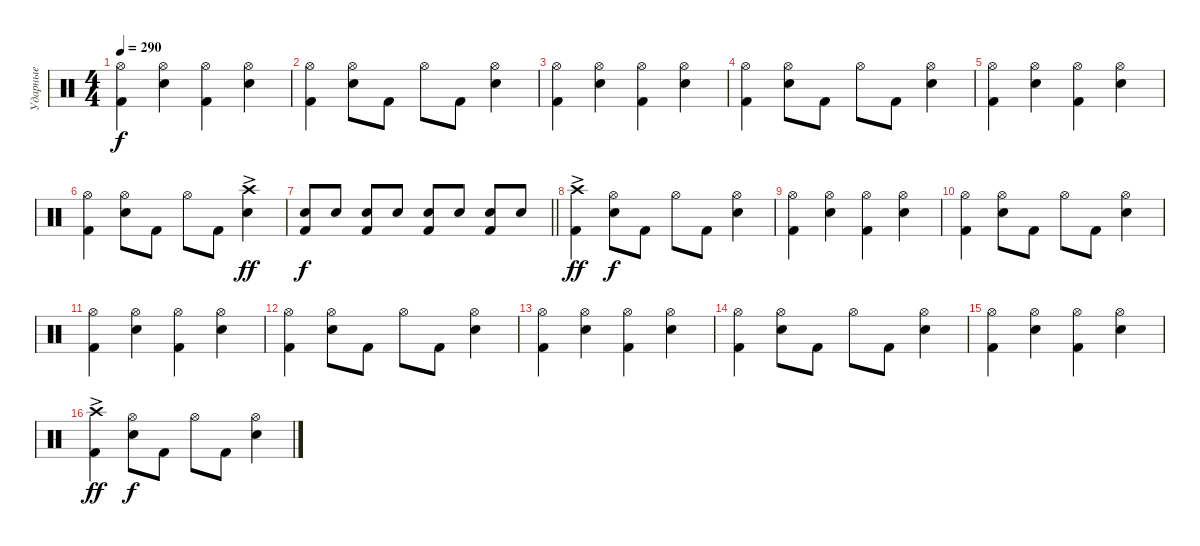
\track ("Ударные" "Ударные") {instrument percussion}
\staff {score}
\articulation defaults
\ts (4 4)
\tempo 290
\clef neutral
\ks c
("Kick (hit) 2" "Hi-Hat (open)").4{dy f} ("Snare (hit) 2" "Hi-Hat (open)").4 ("Kick (hit) 2" "Hi-Hat (open)").4 ("Snare (hit) 2" "Hi-Hat (open)").4 |
("Kick (hit) 2" "Hi-Hat (open)").4 ("Snare (hit) 2" "Hi-Hat (open)").8 "Kick (hit) 2".8 "Hi-Hat (open)".8 "Kick (hit) 2".8 ("Snare (hit) 2" "Hi-Hat (open)").4 |
("Kick (hit) 2" "Hi-Hat (open)").4 ("Snare (hit) 2" "Hi-Hat (open)").4 ("Kick (hit) 2" "Hi-Hat (open)").4 ("Snare (hit) 2" "Hi-Hat (open)").4 |
("Kick (hit) 2" "Hi-Hat (open)").4 ("Snare (hit) 2" "Hi-Hat (open)").8 "Kick (hit) 2".8 "Hi-Hat (open)".8 "Kick (hit) 2".8 ("Snare (hit) 2" "Hi-Hat (open)").4 |
("Kick (hit) 2" "Hi-Hat (open)").4 ("Snare (hit) 2" "Hi-Hat (open)").4 ("Kick (hit) 2" "Hi-Hat (open)").4 ("Snare (hit) 2" "Hi-Hat (open)").4 |
("Kick (hit) 2" "Hi-Hat (open)").4 ("Snare (hit) 2" "Hi-Hat (open)").8 "Kick (hit) 2".8 "Hi-Hat (open)".8 "Kick (hit) 2".8 ("Snare (hit) 2" "Crash high (hit)"{ac}).4{dy ff} |
\barLineRight lightlight
("Kick (hit) 2" "Snare (hit) 2").8{dy f} "Snare (hit) 2".8 ("Kick (hit) 2" "Snare (hit) 2").8 "Snare (hit) 2".8 ("Kick (hit) 2" "Snare (hit) 2").8 "Snare (hit) 2".8 ("Kick (hit) 2" "Snare (hit) 2").8 "Snare (hit) 2".8 |
("Kick (hit) 2" "Crash high (hit)"{ac}).4{dy ff} ("Snare (hit) 2" "Hi-Hat (open)").8{dy f} "Kick (hit) 2".8 "Hi-Hat (open)".8 "Kick (hit) 2".8 ("Snare (hit) 2" "Hi-Hat (open)").4 |
("Kick (hit) 2" "Hi-Hat (open)").4 ("Snare (hit) 2" "Hi-Hat (open)").4 ("Kick (hit) 2" "Hi-Hat (open)").4 ("Snare (hit) 2" "Hi-Hat (open)").4 |
("Kick (hit) 2" "Hi-Hat (open)").4 ("Snare (hit) 2" "Hi-Hat (open)").8 "Kick (hit) 2".8 "Hi-Hat (open)".8 "Kick (hit) 2".8 ("Snare (hit) 2" "Hi-Hat (open)").4 |
("Kick (hit) 2" "Hi-Hat (open)").4 ("Snare (hit) 2" "Hi-Hat (open)").4 ("Kick (hit) 2" "Hi-Hat (open)").4 ("Snare (hit) 2" "Hi-Hat (open)").4 |
("Kick (hit) 2" "Hi-Hat (open)").4 ("Snare (hit) 2" "Hi-Hat (open)").8 "Kick (hit) 2".8 "Hi-Hat (open)".8 "Kick (hit) 2".8 ("Snare (hit) 2" "Hi-Hat (open)").4 |
("Kick (hit) 2" "Hi-Hat (open)").4 ("Snare (hit) 2" "Hi-Hat (open)").4 ("Kick (hit) 2" "Hi-Hat (open)").4 ("Snare (hit) 2" "Hi-Hat (open)").4 |
("Kick (hit) 2" "Hi-Hat (open)").4 ("Snare (hit) 2" "Hi-Hat (open)").8 "Kick (hit) 2".8 "Hi-Hat (open)".8 "Kick (hit) 2".8 ("Snare (hit) 2" "Hi-Hat (open)").4 |
("Kick (hit) 2" "Hi-Hat (open)").4 ("Snare (hit) 2" "Hi-Hat (open)").4 ("Kick (hit) 2" "Hi-Hat (open)").4 ("Snare (hit) 2" "Hi-Hat (open)").4 |
("Kick (hit) 2" "Crash high (hit)"{ac}).4{dy ff} ("Snare (hit) 2" "Hi-Hat (open)").8{dy f} "Kick (hit) 2".8 "Hi-Hat (open)".8 "Kick (hit) 2".8 ("Snare (hit) 2" "Hi-Hat (open)").4
